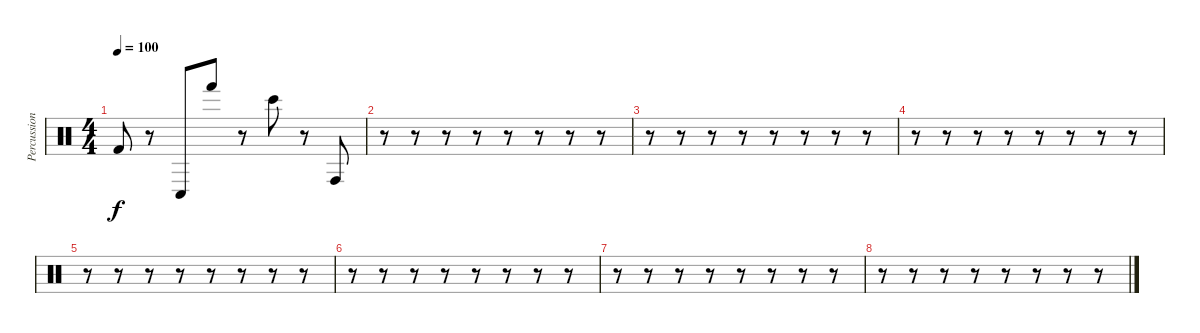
\track ("Percussion" "Percussion") {instrument percussion}
\staff {score}
\articulation defaults
\ts (4 4)
\tempo 100
\clef neutral
\ks c "Kick (hit) 2".8{dy f}
r.8 "Conga low (hit)".8 "Hand (hit)".8 r.8 "Bongo High (hit)".8 r.8 "Conga high (hit)".8 |
r.8 r.8 r.8 r.8 r.8 r.8 r.8 r.8 |
r.8 r.8 r.8 r.8 r.8 r.8 r.8 r.8 |
r.8 r.8 r.8 r.8 r.8 r.8 r.8 r.8 |
r.8 r.8 r.8 r.8 r.8 r.8 r.8 r.8 |
r.8 r.8 r.8 r.8 r.8 r.8 r.8 r.8 |
r.8 r.8 r.8 r.8 r.8 r.8 r.8 r.8 |
r.8 r.8 r.8 r.8 r.8 r.8 r.8 r.8
